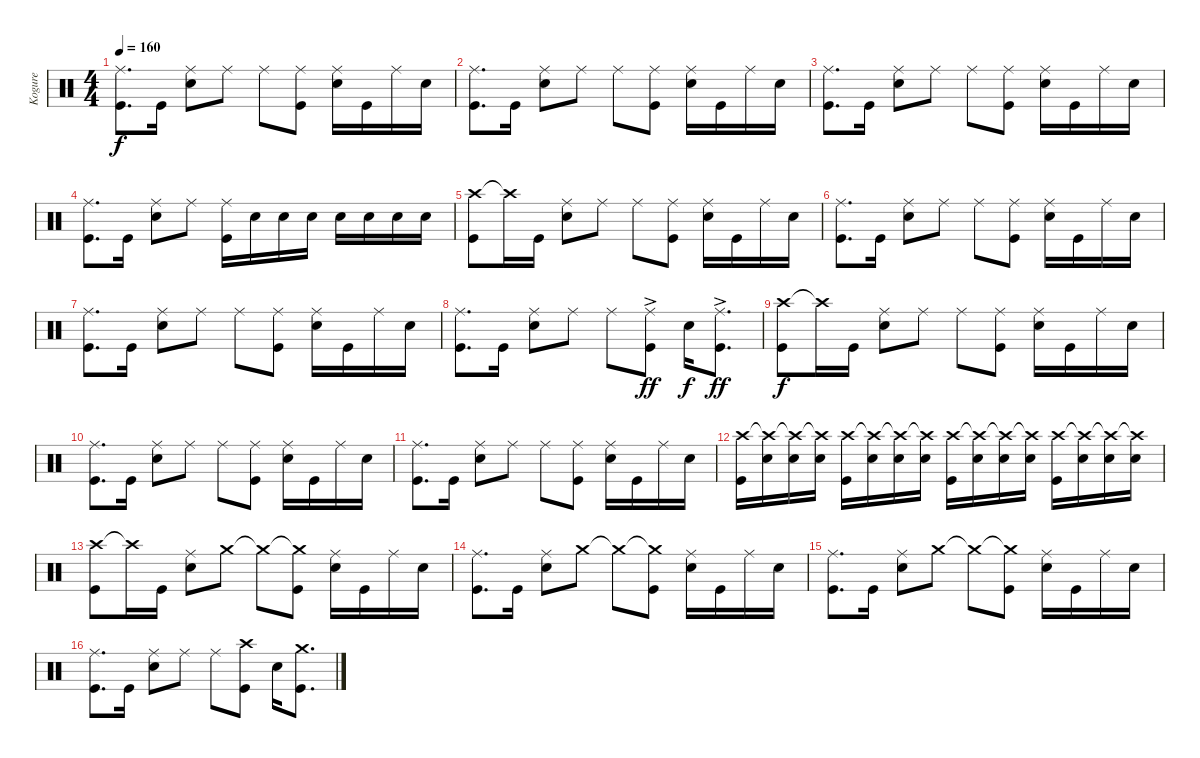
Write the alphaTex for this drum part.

\track ("Kogure" "Kogure") {instrument percussion}
\staff {score}
\articulation defaults
\ts (4 4)
\tempo 160
\clef neutral
\ks c
("Ride (middle)" "Kick (hit)").8{d dy f} "Kick (hit)".16 ("Ride (middle)" "Snare (hit) 2").8 "Ride (middle)".8 "Ride (middle)".8 ("Ride (middle)" "Kick (hit)").8 ("Ride (middle)" "Snare (hit) 2").16 "Kick (hit)".16 "Ride (middle)".16 "Snare (hit) 2".16 |
("Ride (middle)" "Kick (hit)").8{d} "Kick (hit)".16 ("Ride (middle)" "Snare (hit) 2").8 "Ride (middle)".8 "Ride (middle)".8 ("Ride (middle)" "Kick (hit)").8 ("Ride (middle)" "Snare (hit) 2").16 "Kick (hit)".16 "Ride (middle)".16 "Snare (hit) 2".16 |
("Ride (middle)" "Kick (hit)").8{d} "Kick (hit)".16 ("Ride (middle)" "Snare (hit) 2").8 "Ride (middle)".8 "Ride (middle)".8 ("Ride (middle)" "Kick (hit)").8 ("Ride (middle)" "Snare (hit) 2").16 "Kick (hit)".16 "Ride (middle)".16 "Snare (hit) 2".16 |
("Ride (middle)" "Kick (hit)").8{d} "Kick (hit)".16 ("Ride (middle)" "Snare (hit) 2").8 "Ride (middle)".8 ("Ride (middle)" "Kick (hit)").16 "Snare (hit) 2".16 "Snare (hit) 2".16 "Snare (hit) 2".16 "Snare (hit) 2".16 "Snare (hit) 2".16 "Snare (hit) 2".16 "Snare (hit) 2".16 |
("Crash high (hit)" "Kick (hit)").8 "Crash high (hit)"{t}.16 "Kick (hit)".16 ("Ride (middle)" "Snare (hit) 2").8 "Ride (middle)".8 "Ride (middle)".8 ("Ride (middle)" "Kick (hit)").8 ("Ride (middle)" "Snare (hit) 2").16 "Kick (hit)".16 "Ride (middle)".16 "Snare (hit) 2".16 |
("Ride (middle)" "Kick (hit)").8{d} "Kick (hit)".16 ("Ride (middle)" "Snare (hit) 2").8 "Ride (middle)".8 "Ride (middle)".8 ("Ride (middle)" "Kick (hit)").8 ("Ride (middle)" "Snare (hit) 2").16 "Kick (hit)".16 "Ride (middle)".16 "Snare (hit) 2".16 |
("Ride (middle)" "Kick (hit)").8{d} "Kick (hit)".16 ("Ride (middle)" "Snare (hit) 2").8 "Ride (middle)".8 "Ride (middle)".8 ("Ride (middle)" "Kick (hit)").8 ("Ride (middle)" "Snare (hit) 2").16 "Kick (hit)".16 "Ride (middle)".16 "Snare (hit) 2".16 |
("Ride (middle)" "Kick (hit)").8{d} "Kick (hit)".16 ("Ride (middle)" "Snare (hit) 2").8 "Ride (middle)".8 "Ride (middle)".8 ("Ride (middle)"{ac} "Kick (hit)").8{dy ff} "Snare (hit) 2".16{dy f} ("Ride (middle)"{ac} "Kick (hit)").8{d dy ff} |
("Crash high (hit)" "Kick (hit)").8{dy f} "Crash high (hit)"{t}.16 "Kick (hit)".16 ("Ride (middle)" "Snare (hit) 2").8 "Ride (middle)".8 "Ride (middle)".8 ("Ride (middle)" "Kick (hit)").8 ("Ride (middle)" "Snare (hit) 2").16 "Kick (hit)".16 "Ride (middle)".16 "Snare (hit) 2".16 |
("Ride (middle)" "Kick (hit)").8{d} "Kick (hit)".16 ("Ride (middle)" "Snare (hit) 2").8 "Ride (middle)".8 "Ride (middle)".8 ("Ride (middle)" "Kick (hit)").8 ("Ride (middle)" "Snare (hit) 2").16 "Kick (hit)".16 "Ride (middle)".16 "Snare (hit) 2".16 |
("Ride (middle)" "Kick (hit)").8{d} "Kick (hit)".16 ("Ride (middle)" "Snare (hit) 2").8 "Ride (middle)".8 "Ride (middle)".8 ("Ride (middle)" "Kick (hit)").8 ("Ride (middle)" "Snare (hit) 2").16 "Kick (hit)".16 "Ride (middle)".16 "Snare (hit) 2".16 |
("Crash high (hit)" "Kick (hit)").16 ("Crash high (hit)"{t} "Snare (hit) 2").16 ("Crash high (hit)"{t} "Snare (hit) 2").16 ("Crash high (hit)"{t} "Snare (hit) 2").16 ("Crash high (hit)" "Kick (hit)").16 ("Crash high (hit)"{t} "Snare (hit) 2").16 ("Crash high (hit)"{t} "Snare (hit) 2").16 ("Crash high (hit)"{t} "Snare (hit) 2").16 ("Crash high (hit)" "Kick (hit)").16 ("Crash high (hit)"{t} "Snare (hit) 2").16 ("Crash high (hit)"{t} "Snare (hit) 2").16 ("Crash high (hit)"{t} "Snare (hit) 2").16 ("Crash high (hit)" "Kick (hit)").16 ("Crash high (hit)"{t} "Snare (hit) 2").16 ("Crash high (hit)"{t} "Snare (hit) 2").16 ("Crash high (hit)"{t} "Snare (hit) 2").16 |
("Crash high (hit)" "Kick (hit)").8 "Crash high (hit)"{t}.16 "Kick (hit)".16 ("Ride (middle)" "Snare (hit) 2").8 "Crash medium (hit)".8 "Crash medium (hit)"{t}.8 ("Crash medium (hit)"{t} "Kick (hit)").8 ("Ride (middle)" "Snare (hit) 2").16 "Kick (hit)".16 "Ride (middle)".16 "Snare (hit) 2".16 |
("Ride (middle)" "Kick (hit)").8{d} "Kick (hit)".16 ("Ride (middle)" "Snare (hit) 2").8 "Crash medium (hit)".8 "Crash medium (hit)"{t}.8 ("Crash medium (hit)"{t} "Kick (hit)").8 ("Ride (middle)" "Snare (hit) 2").16 "Kick (hit)".16 "Ride (middle)".16 "Snare (hit) 2".16 |
("Ride (middle)" "Kick (hit)").8{d} "Kick (hit)".16 ("Ride (middle)" "Snare (hit) 2").8 "Crash medium (hit)".8 "Crash medium (hit)"{t}.8 ("Crash medium (hit)"{t} "Kick (hit)").8 ("Ride (middle)" "Snare (hit) 2").16 "Kick (hit)".16 "Ride (middle)".16 "Snare (hit) 2".16 |
("Ride (middle)" "Kick (hit)").8{d} "Kick (hit)".16 ("Ride (middle)" "Snare (hit) 2").8 "Ride (middle)".8 "Ride (middle)".8 ("Crash high (hit)" "Kick (hit)").8 "Snare (hit) 2".16 ("Crash medium (hit)" "Kick (hit)").8{d}
